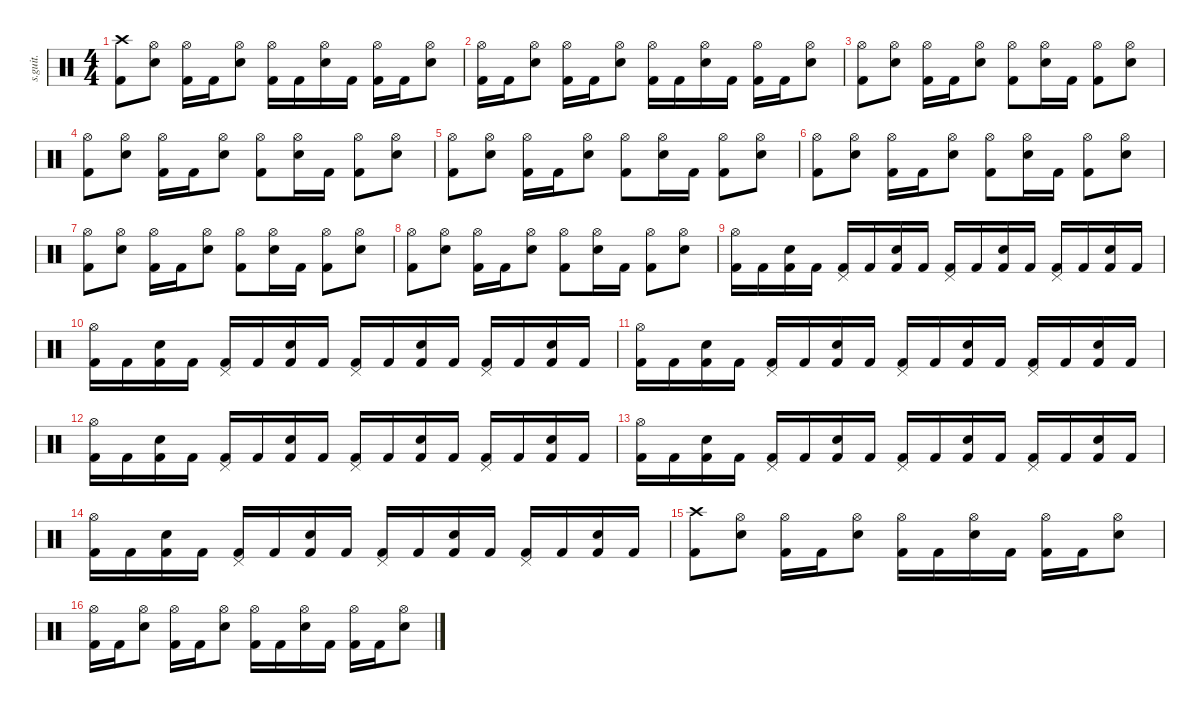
\defaultSystemsLayout 4
\hideDynamics
\bracketExtendMode nobrackets
\track ("" "s.guit.") {instrument percussion}
\staff {score}
\articulation defaults
\ts (4 4)
\tempo (150 hide)
\clef neutral
\ks c
("Crash high (hit)" "Kick (hit) 2").8{dy f} ("Hi-Hat (open)" "Snare (hit) 2").8 ("Hi-Hat (open)" "Kick (hit) 2").16 "Kick (hit) 2".16 ("Hi-Hat (open)" "Snare (hit) 2").8 ("Hi-Hat (open)" "Kick (hit) 2").16 "Kick (hit) 2".16 ("Hi-Hat (open)" "Snare (hit) 2").16 "Kick (hit) 2".16 ("Hi-Hat (open)" "Kick (hit) 2").16 "Kick (hit) 2".16 ("Hi-Hat (open)" "Snare (hit) 2").8 |
("Hi-Hat (open)" "Kick (hit) 2").16 "Kick (hit) 2".16 ("Hi-Hat (open)" "Snare (hit) 2").8 ("Hi-Hat (open)" "Kick (hit) 2").16 "Kick (hit) 2".16 ("Hi-Hat (open)" "Snare (hit) 2").8 ("Hi-Hat (open)" "Kick (hit) 2").16 "Kick (hit) 2".16 ("Hi-Hat (open)" "Snare (hit) 2").16 "Kick (hit) 2".16 ("Hi-Hat (open)" "Kick (hit) 2").16 "Kick (hit) 2".16 ("Hi-Hat (open)" "Snare (hit) 2").8 |
("Hi-Hat (open)" "Kick (hit) 2").8 ("Hi-Hat (open)" "Snare (hit) 2").8 ("Hi-Hat (open)" "Kick (hit) 2").16 "Kick (hit) 2".16 ("Hi-Hat (open)" "Snare (hit) 2").8 ("Hi-Hat (open)" "Kick (hit) 2").8 ("Hi-Hat (open)" "Snare (hit) 2").16 "Kick (hit) 2".16 ("Hi-Hat (open)" "Kick (hit) 2").8 ("Hi-Hat (open)" "Snare (hit) 2").8 |
("Hi-Hat (open)" "Kick (hit) 2").8 ("Hi-Hat (open)" "Snare (hit) 2").8 ("Hi-Hat (open)" "Kick (hit) 2").16 "Kick (hit) 2".16 ("Hi-Hat (open)" "Snare (hit) 2").8 ("Hi-Hat (open)" "Kick (hit) 2").8 ("Hi-Hat (open)" "Snare (hit) 2").16 "Kick (hit) 2".16 ("Hi-Hat (open)" "Kick (hit) 2").8 ("Hi-Hat (open)" "Snare (hit) 2").8 |
("Hi-Hat (open)" "Kick (hit) 2").8 ("Hi-Hat (open)" "Snare (hit) 2").8 ("Hi-Hat (open)" "Kick (hit) 2").16 "Kick (hit) 2".16 ("Hi-Hat (open)" "Snare (hit) 2").8 ("Hi-Hat (open)" "Kick (hit) 2").8 ("Hi-Hat (open)" "Snare (hit) 2").16 "Kick (hit) 2".16 ("Hi-Hat (open)" "Kick (hit) 2").8 ("Hi-Hat (open)" "Snare (hit) 2").8 |
("Hi-Hat (open)" "Kick (hit) 2").8 ("Hi-Hat (open)" "Snare (hit) 2").8 ("Hi-Hat (open)" "Kick (hit) 2").16 "Kick (hit) 2".16 ("Hi-Hat (open)" "Snare (hit) 2").8 ("Hi-Hat (open)" "Kick (hit) 2").8 ("Hi-Hat (open)" "Snare (hit) 2").16 "Kick (hit) 2".16 ("Hi-Hat (open)" "Kick (hit) 2").8 ("Hi-Hat (open)" "Snare (hit) 2").8 |
("Hi-Hat (open)" "Kick (hit) 2").8 ("Hi-Hat (open)" "Snare (hit) 2").8 ("Hi-Hat (open)" "Kick (hit) 2").16 "Kick (hit) 2".16 ("Hi-Hat (open)" "Snare (hit) 2").8 ("Hi-Hat (open)" "Kick (hit) 2").8 ("Hi-Hat (open)" "Snare (hit) 2").16 "Kick (hit) 2".16 ("Hi-Hat (open)" "Kick (hit) 2").8 ("Hi-Hat (open)" "Snare (hit) 2").8 |
("Hi-Hat (open)" "Kick (hit) 2").8 ("Hi-Hat (open)" "Snare (hit) 2").8 ("Hi-Hat (open)" "Kick (hit) 2").16 "Kick (hit) 2".16 ("Hi-Hat (open)" "Snare (hit) 2").8 ("Hi-Hat (open)" "Kick (hit) 2").8 ("Hi-Hat (open)" "Snare (hit) 2").16 "Kick (hit) 2".16 ("Hi-Hat (open)" "Kick (hit) 2").8 ("Hi-Hat (open)" "Snare (hit) 2").8 |
("Hi-Hat (open)" "Kick (hit) 2").16 "Kick (hit) 2".16 ("Snare (hit) 2" "Kick (hit) 2").16 "Kick (hit) 2".16 ("Kick (hit) 2" "Pedal Hi-Hat (hit)").16 "Kick (hit) 2".16 ("Snare (hit) 2" "Kick (hit) 2").16 "Kick (hit) 2".16 ("Kick (hit) 2" "Pedal Hi-Hat (hit)").16 "Kick (hit) 2".16 ("Snare (hit) 2" "Kick (hit) 2").16 "Kick (hit) 2".16 ("Kick (hit) 2" "Pedal Hi-Hat (hit)").16 "Kick (hit) 2".16 ("Snare (hit) 2" "Kick (hit) 2").16 "Kick (hit) 2".16 |
("Hi-Hat (open)" "Kick (hit) 2").16 "Kick (hit) 2".16 ("Snare (hit) 2" "Kick (hit) 2").16 "Kick (hit) 2".16 ("Kick (hit) 2" "Pedal Hi-Hat (hit)").16 "Kick (hit) 2".16 ("Snare (hit) 2" "Kick (hit) 2").16 "Kick (hit) 2".16 ("Kick (hit) 2" "Pedal Hi-Hat (hit)").16 "Kick (hit) 2".16 ("Snare (hit) 2" "Kick (hit) 2").16 "Kick (hit) 2".16 ("Kick (hit) 2" "Pedal Hi-Hat (hit)").16 "Kick (hit) 2".16 ("Snare (hit) 2" "Kick (hit) 2").16 "Kick (hit) 2".16 |
("Hi-Hat (open)" "Kick (hit) 2").16 "Kick (hit) 2".16 ("Snare (hit) 2" "Kick (hit) 2").16 "Kick (hit) 2".16 ("Kick (hit) 2" "Pedal Hi-Hat (hit)").16 "Kick (hit) 2".16 ("Snare (hit) 2" "Kick (hit) 2").16 "Kick (hit) 2".16 ("Kick (hit) 2" "Pedal Hi-Hat (hit)").16 "Kick (hit) 2".16 ("Snare (hit) 2" "Kick (hit) 2").16 "Kick (hit) 2".16 ("Kick (hit) 2" "Pedal Hi-Hat (hit)").16 "Kick (hit) 2".16 ("Snare (hit) 2" "Kick (hit) 2").16 "Kick (hit) 2".16 |
("Hi-Hat (open)" "Kick (hit) 2").16 "Kick (hit) 2".16 ("Snare (hit) 2" "Kick (hit) 2").16 "Kick (hit) 2".16 ("Kick (hit) 2" "Pedal Hi-Hat (hit)").16 "Kick (hit) 2".16 ("Snare (hit) 2" "Kick (hit) 2").16 "Kick (hit) 2".16 ("Kick (hit) 2" "Pedal Hi-Hat (hit)").16 "Kick (hit) 2".16 ("Snare (hit) 2" "Kick (hit) 2").16 "Kick (hit) 2".16 ("Kick (hit) 2" "Pedal Hi-Hat (hit)").16 "Kick (hit) 2".16 ("Snare (hit) 2" "Kick (hit) 2").16 "Kick (hit) 2".16 |
("Hi-Hat (open)" "Kick (hit) 2").16 "Kick (hit) 2".16 ("Snare (hit) 2" "Kick (hit) 2").16 "Kick (hit) 2".16 ("Kick (hit) 2" "Pedal Hi-Hat (hit)").16 "Kick (hit) 2".16 ("Snare (hit) 2" "Kick (hit) 2").16 "Kick (hit) 2".16 ("Kick (hit) 2" "Pedal Hi-Hat (hit)").16 "Kick (hit) 2".16 ("Snare (hit) 2" "Kick (hit) 2").16 "Kick (hit) 2".16 ("Kick (hit) 2" "Pedal Hi-Hat (hit)").16 "Kick (hit) 2".16 ("Snare (hit) 2" "Kick (hit) 2").16 "Kick (hit) 2".16 |
("Hi-Hat (open)" "Kick (hit) 2").16 "Kick (hit) 2".16 ("Snare (hit) 2" "Kick (hit) 2").16 "Kick (hit) 2".16 ("Kick (hit) 2" "Pedal Hi-Hat (hit)").16 "Kick (hit) 2".16 ("Snare (hit) 2" "Kick (hit) 2").16 "Kick (hit) 2".16 ("Kick (hit) 2" "Pedal Hi-Hat (hit)").16 "Kick (hit) 2".16 ("Snare (hit) 2" "Kick (hit) 2").16 "Kick (hit) 2".16 ("Kick (hit) 2" "Pedal Hi-Hat (hit)").16 "Kick (hit) 2".16 ("Snare (hit) 2" "Kick (hit) 2").16 "Kick (hit) 2".16 |
("Crash high (hit)" "Kick (hit) 2").8 ("Hi-Hat (open)" "Snare (hit) 2").8 ("Hi-Hat (open)" "Kick (hit) 2").16 "Kick (hit) 2".16 ("Hi-Hat (open)" "Snare (hit) 2").8 ("Hi-Hat (open)" "Kick (hit) 2").16 "Kick (hit) 2".16 ("Hi-Hat (open)" "Snare (hit) 2").16 "Kick (hit) 2".16 ("Hi-Hat (open)" "Kick (hit) 2").16 "Kick (hit) 2".16 ("Hi-Hat (open)" "Snare (hit) 2").8 |
("Hi-Hat (open)" "Kick (hit) 2").16 "Kick (hit) 2".16 ("Hi-Hat (open)" "Snare (hit) 2").8 ("Hi-Hat (open)" "Kick (hit) 2").16 "Kick (hit) 2".16 ("Hi-Hat (open)" "Snare (hit) 2").8 ("Hi-Hat (open)" "Kick (hit) 2").16 "Kick (hit) 2".16 ("Hi-Hat (open)" "Snare (hit) 2").16 "Kick (hit) 2".16 ("Hi-Hat (open)" "Kick (hit) 2").16 "Kick (hit) 2".16 ("Hi-Hat (open)" "Snare (hit) 2").8
